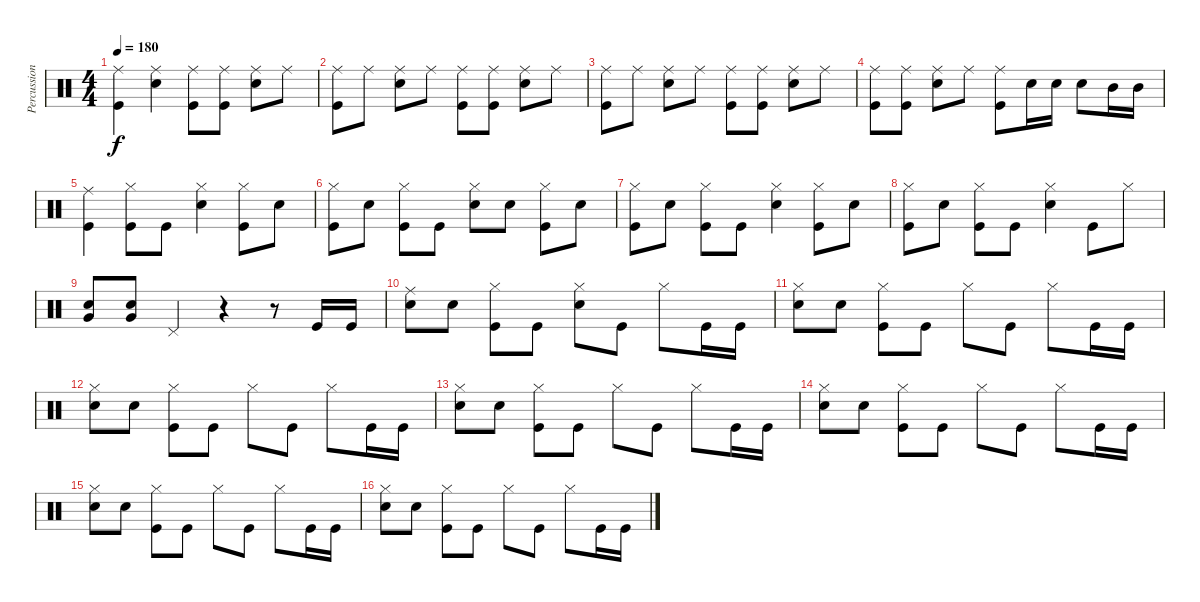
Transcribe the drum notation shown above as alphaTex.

\track ("Percussion" "Percussion") {instrument percussion}
\staff {score}
\articulation defaults
\ts (4 4)
\tempo 180
\clef neutral
\ks c
("Ride (middle)" "Kick (hit)").4{dy f} ("Ride (middle)" "Snare (hit) 2").4 ("Ride (middle)" "Kick (hit)").8 ("Ride (middle)" "Kick (hit)").8 ("Ride (middle)" "Snare (hit) 2").8 "Ride (middle)".8 |
("Ride (middle)" "Kick (hit)").8 "Ride (middle)".8 ("Ride (middle)" "Snare (hit) 2").8 "Ride (middle)".8 ("Ride (middle)" "Kick (hit)").8 ("Ride (middle)" "Kick (hit)").8 ("Ride (middle)" "Snare (hit) 2").8 "Ride (middle)".8 |
("Ride (middle)" "Kick (hit)").8 "Ride (middle)".8 ("Ride (middle)" "Snare (hit) 2").8 "Ride (middle)".8 ("Ride (middle)" "Kick (hit)").8 ("Ride (middle)" "Kick (hit)").8 ("Ride (middle)" "Snare (hit) 2").8 "Ride (middle)".8 |
("Ride (middle)" "Kick (hit)").8 ("Ride (middle)" "Kick (hit)").8 ("Ride (middle)" "Snare (hit) 2").8 "Ride (middle)".8 ("Ride (middle)" "Kick (hit)").8 "Snare (hit) 2".16 "Snare (hit) 2".16 "Snare (hit) 2".8 "Mid Tom (hit)".16 "Mid Tom (hit)".16 |
("Ride (middle)" "Kick (hit)").4 ("Hi-Hat (closed)" "Kick (hit)").8 "Kick (hit)".8 ("Hi-Hat (closed)" "Snare (hit) 2").4 ("Hi-Hat (closed)" "Kick (hit)").8 "Snare (hit) 2".8 |
("Hi-Hat (closed)" "Kick (hit)").8 "Snare (hit) 2".8 ("Hi-Hat (closed)" "Kick (hit)").8 "Kick (hit)".8 ("Hi-Hat (closed)" "Snare (hit) 2").8 "Snare (hit) 2".8 ("Hi-Hat (closed)" "Kick (hit)").8 "Snare (hit) 2".8 |
("Hi-Hat (closed)" "Kick (hit)").8 "Snare (hit) 2".8 ("Hi-Hat (closed)" "Kick (hit)").8 "Kick (hit)".8 ("Hi-Hat (closed)" "Snare (hit) 2").4 ("Hi-Hat (closed)" "Kick (hit)").8 "Snare (hit) 2".8 |
("Hi-Hat (closed)" "Kick (hit)").8 "Snare (hit) 2".8 ("Hi-Hat (closed)" "Kick (hit)").8 "Kick (hit)".8 ("Hi-Hat (closed)" "Snare (hit) 2").4 "Kick (hit)".8 "Hi-Hat (closed)".8 |
("Snare (hit) 2" "Very Low Tom (hit)").8 ("Snare (hit) 2" "Very Low Tom (hit)").8 "Pedal Hi-Hat (hit)".4 r.4 r.8 "Kick (hit)".16 "Kick (hit)".16 |
("Ride (middle)" "Snare (hit) 2").8 "Snare (hit) 2".8 ("Hi-Hat (closed)" "Kick (hit)").8 "Kick (hit)".8 ("Hi-Hat (closed)" "Snare (hit) 2").8 "Kick (hit)".8 "Hi-Hat (closed)".8 "Kick (hit)".16 "Kick (hit)".16 |
("Hi-Hat (closed)" "Snare (hit) 2").8 "Snare (hit) 2".8 ("Hi-Hat (closed)" "Kick (hit)").8 "Kick (hit)".8 "Hi-Hat (closed)".8 "Kick (hit)".8 "Hi-Hat (closed)".8 "Kick (hit)".16 "Kick (hit)".16 |
("Hi-Hat (closed)" "Snare (hit) 2").8 "Snare (hit) 2".8 ("Hi-Hat (closed)" "Kick (hit)").8 "Kick (hit)".8 "Hi-Hat (closed)".8 "Kick (hit)".8 "Hi-Hat (closed)".8 "Kick (hit)".16 "Kick (hit)".16 |
("Hi-Hat (closed)" "Snare (hit) 2").8 "Snare (hit) 2".8 ("Hi-Hat (closed)" "Kick (hit)").8 "Kick (hit)".8 "Hi-Hat (closed)".8 "Kick (hit)".8 "Hi-Hat (closed)".8 "Kick (hit)".16 "Kick (hit)".16 |
("Hi-Hat (closed)" "Snare (hit) 2").8 "Snare (hit) 2".8 ("Hi-Hat (closed)" "Kick (hit)").8 "Kick (hit)".8 "Hi-Hat (closed)".8 "Kick (hit)".8 "Hi-Hat (closed)".8 "Kick (hit)".16 "Kick (hit)".16 |
("Hi-Hat (closed)" "Snare (hit) 2").8 "Snare (hit) 2".8 ("Hi-Hat (closed)" "Kick (hit)").8 "Kick (hit)".8 "Hi-Hat (closed)".8 "Kick (hit)".8 "Hi-Hat (closed)".8 "Kick (hit)".16 "Kick (hit)".16 |
("Hi-Hat (closed)" "Snare (hit) 2").8 "Snare (hit) 2".8 ("Hi-Hat (closed)" "Kick (hit)").8 "Kick (hit)".8 "Hi-Hat (closed)".8 "Kick (hit)".8 "Hi-Hat (closed)".8 "Kick (hit)".16 "Kick (hit)".16
